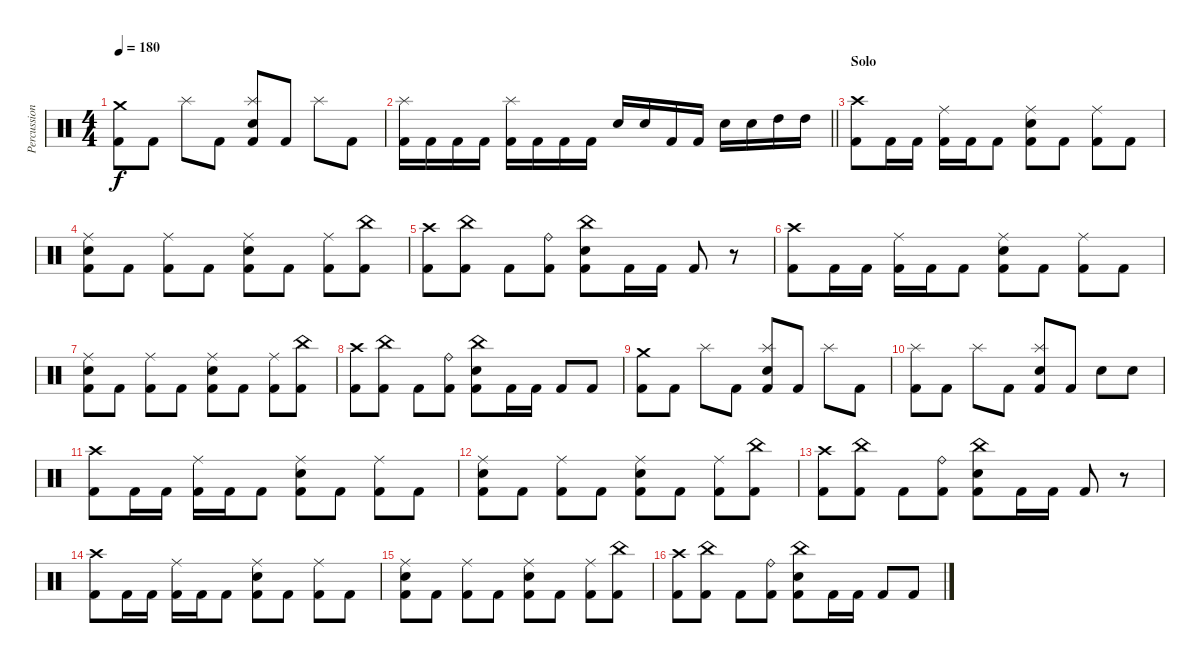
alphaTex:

\track ("Percussion" "Percussion") {instrument percussion}
\staff {score}
\articulation defaults
\ts (4 4)
\tempo 180
\clef neutral
\ks c
("Crash medium (hit)" "Kick (hit) 2").8{dy f} "Kick (hit) 2".8 "Splash (hit)".8 "Kick (hit) 2".8 ("Splash (hit)" "Electric Snare (hit)" "Kick (hit) 2").8 "Kick (hit) 2".8 "Splash (hit)".8 "Kick (hit) 2".8 |
\barLineRight lightlight
("Splash (hit)" "Kick (hit) 2").16 "Kick (hit) 2".16 "Kick (hit) 2".16 "Kick (hit) 2".16 ("Splash (hit)" "Kick (hit) 2").16 "Kick (hit) 2".16 "Kick (hit) 2".16 "Kick (hit) 2".16 "Electric Snare (hit)".16 "Electric Snare (hit)".16 "Kick (hit) 2".16 "Kick (hit) 2".16 "Electric Snare (hit)".16 "Electric Snare (hit)".16 "High Tom (hit)".16 "High Tom (hit)".16 |
\section ("" "Solo")
("Crash high (hit)" "Kick (hit) 2").8 "Kick (hit) 2".16 "Kick (hit) 2".16 ("Ride (middle)" "Kick (hit) 2").16 "Kick (hit) 2".16 "Kick (hit) 2".8 ("Ride (middle)" "Electric Snare (hit)" "Kick (hit) 2").8 "Kick (hit) 2".8 ("Ride (middle)" "Kick (hit) 2").8 "Kick (hit) 2".8 |
("Ride (middle)" "Electric Snare (hit)" "Kick (hit) 2").8 "Kick (hit) 2".8 ("Ride (middle)" "Kick (hit) 2").8 "Kick (hit) 2".8 ("Ride (middle)" "Electric Snare (hit)" "Kick (hit) 2").8 "Kick (hit) 2".8 ("Ride (middle)" "Kick (hit) 2").8 ("China (hit)" "Kick (hit) 2").8 |
("Crash high (hit)" "Kick (hit) 2").8 ("China (hit)" "Kick (hit) 2").8 "Kick (hit) 2".8 ("Ride (bell)" "Kick (hit) 2").8 ("China (hit)" "Electric Snare (hit)" "Kick (hit) 2").8 "Kick (hit) 2".16 "Kick (hit) 2".16 "Kick (hit) 2".8 r.8 |
("Crash high (hit)" "Kick (hit) 2").8 "Kick (hit) 2".16 "Kick (hit) 2".16 ("Ride (middle)" "Kick (hit) 2").16 "Kick (hit) 2".16 "Kick (hit) 2".8 ("Ride (middle)" "Electric Snare (hit)" "Kick (hit) 2").8 "Kick (hit) 2".8 ("Ride (middle)" "Kick (hit) 2").8 "Kick (hit) 2".8 |
("Ride (middle)" "Electric Snare (hit)" "Kick (hit) 2").8 "Kick (hit) 2".8 ("Ride (middle)" "Kick (hit) 2").8 "Kick (hit) 2".8 ("Ride (middle)" "Electric Snare (hit)" "Kick (hit) 2").8 "Kick (hit) 2".8 ("Ride (middle)" "Kick (hit) 2").8 ("China (hit)" "Kick (hit) 2").8 |
("Crash high (hit)" "Kick (hit) 2").8 ("China (hit)" "Kick (hit) 2").8 "Kick (hit) 2".8 ("Ride (bell)" "Kick (hit) 2").8 ("China (hit)" "Electric Snare (hit)" "Kick (hit) 2").8 "Kick (hit) 2".16 "Kick (hit) 2".16 "Kick (hit) 2".8 "Kick (hit) 2".8 |
("Crash medium (hit)" "Kick (hit) 2").8 "Kick (hit) 2".8 "Splash (hit)".8 "Kick (hit) 2".8 ("Splash (hit)" "Electric Snare (hit)" "Kick (hit) 2").8 "Kick (hit) 2".8 "Splash (hit)".8 "Kick (hit) 2".8 |
("Splash (hit)" "Kick (hit) 2").8 "Kick (hit) 2".8 "Splash (hit)".8 "Kick (hit) 2".8 ("Splash (hit)" "Electric Snare (hit)" "Kick (hit) 2").8 "Kick (hit) 2".8 "Electric Snare (hit)".8 "Electric Snare (hit)".8 |
("Crash high (hit)" "Kick (hit) 2").8 "Kick (hit) 2".16 "Kick (hit) 2".16 ("Ride (middle)" "Kick (hit) 2").16 "Kick (hit) 2".16 "Kick (hit) 2".8 ("Ride (middle)" "Electric Snare (hit)" "Kick (hit) 2").8 "Kick (hit) 2".8 ("Ride (middle)" "Kick (hit) 2").8 "Kick (hit) 2".8 |
("Ride (middle)" "Electric Snare (hit)" "Kick (hit) 2").8 "Kick (hit) 2".8 ("Ride (middle)" "Kick (hit) 2").8 "Kick (hit) 2".8 ("Ride (middle)" "Electric Snare (hit)" "Kick (hit) 2").8 "Kick (hit) 2".8 ("Ride (middle)" "Kick (hit) 2").8 ("China (hit)" "Kick (hit) 2").8 |
("Crash high (hit)" "Kick (hit) 2").8 ("China (hit)" "Kick (hit) 2").8 "Kick (hit) 2".8 ("Ride (bell)" "Kick (hit) 2").8 ("China (hit)" "Electric Snare (hit)" "Kick (hit) 2").8 "Kick (hit) 2".16 "Kick (hit) 2".16 "Kick (hit) 2".8 r.8 |
("Crash high (hit)" "Kick (hit) 2").8 "Kick (hit) 2".16 "Kick (hit) 2".16 ("Ride (middle)" "Kick (hit) 2").16 "Kick (hit) 2".16 "Kick (hit) 2".8 ("Ride (middle)" "Electric Snare (hit)" "Kick (hit) 2").8 "Kick (hit) 2".8 ("Ride (middle)" "Kick (hit) 2").8 "Kick (hit) 2".8 |
("Ride (middle)" "Electric Snare (hit)" "Kick (hit) 2").8 "Kick (hit) 2".8 ("Ride (middle)" "Kick (hit) 2").8 "Kick (hit) 2".8 ("Ride (middle)" "Electric Snare (hit)" "Kick (hit) 2").8 "Kick (hit) 2".8 ("Ride (middle)" "Kick (hit) 2").8 ("China (hit)" "Kick (hit) 2").8 |
("Crash high (hit)" "Kick (hit) 2").8 ("China (hit)" "Kick (hit) 2").8 "Kick (hit) 2".8 ("Ride (bell)" "Kick (hit) 2").8 ("China (hit)" "Electric Snare (hit)" "Kick (hit) 2").8 "Kick (hit) 2".16 "Kick (hit) 2".16 "Kick (hit) 2".8 "Kick (hit) 2".8
